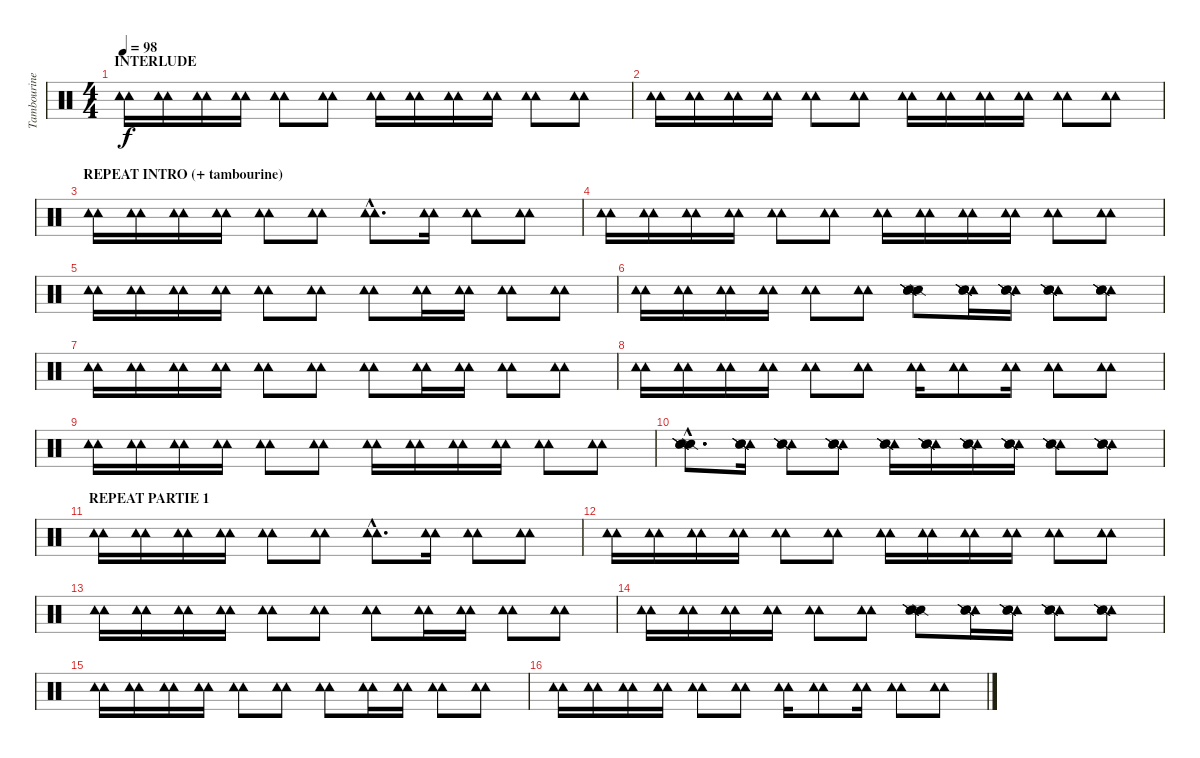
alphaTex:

\track ("Tambourine" "Tambourine") {instrument percussion}
\staff {score}
\articulation defaults
\ts (4 4)
\section ("" "INTERLUDE")
\tempo 98
\clef neutral
\ks c
("Tambourine (hit)" "Tambourine (hit)").16{dy f} ("Tambourine (hit)" "Tambourine (hit)").16 ("Tambourine (hit)" "Tambourine (hit)").16 ("Tambourine (hit)" "Tambourine (hit)").16 ("Tambourine (hit)" "Tambourine (hit)").8 ("Tambourine (hit)" "Tambourine (hit)").8 ("Tambourine (hit)" "Tambourine (hit)").16 ("Tambourine (hit)" "Tambourine (hit)").16 ("Tambourine (hit)" "Tambourine (hit)").16 ("Tambourine (hit)" "Tambourine (hit)").16 ("Tambourine (hit)" "Tambourine (hit)").8 ("Tambourine (hit)" "Tambourine (hit)").8 |
("Tambourine (hit)" "Tambourine (hit)").16 ("Tambourine (hit)" "Tambourine (hit)").16 ("Tambourine (hit)" "Tambourine (hit)").16 ("Tambourine (hit)" "Tambourine (hit)").16 ("Tambourine (hit)" "Tambourine (hit)").8 ("Tambourine (hit)" "Tambourine (hit)").8 ("Tambourine (hit)" "Tambourine (hit)").16 ("Tambourine (hit)" "Tambourine (hit)").16 ("Tambourine (hit)" "Tambourine (hit)").16 ("Tambourine (hit)" "Tambourine (hit)").16 ("Tambourine (hit)" "Tambourine (hit)").8 ("Tambourine (hit)" "Tambourine (hit)").8 |
\section ("" "REPEAT INTRO (+ tambourine)")
("Tambourine (hit)" "Tambourine (hit)").16 ("Tambourine (hit)" "Tambourine (hit)").16 ("Tambourine (hit)" "Tambourine (hit)").16 ("Tambourine (hit)" "Tambourine (hit)").16 ("Tambourine (hit)" "Tambourine (hit)").8 ("Tambourine (hit)" "Tambourine (hit)").8 ("Tambourine (hit)"{hac} "Tambourine (hit)"{hac}).8{d} ("Tambourine (hit)" "Tambourine (hit)").16 ("Tambourine (hit)" "Tambourine (hit)").8 ("Tambourine (hit)" "Tambourine (hit)").8 |
("Tambourine (hit)" "Tambourine (hit)").16 ("Tambourine (hit)" "Tambourine (hit)").16 ("Tambourine (hit)" "Tambourine (hit)").16 ("Tambourine (hit)" "Tambourine (hit)").16 ("Tambourine (hit)" "Tambourine (hit)").8 ("Tambourine (hit)" "Tambourine (hit)").8 ("Tambourine (hit)" "Tambourine (hit)").16 ("Tambourine (hit)" "Tambourine (hit)").16 ("Tambourine (hit)" "Tambourine (hit)").16 ("Tambourine (hit)" "Tambourine (hit)").16 ("Tambourine (hit)" "Tambourine (hit)").8 ("Tambourine (hit)" "Tambourine (hit)").8 |
("Tambourine (hit)" "Tambourine (hit)").16 ("Tambourine (hit)" "Tambourine (hit)").16 ("Tambourine (hit)" "Tambourine (hit)").16 ("Tambourine (hit)" "Tambourine (hit)").16 ("Tambourine (hit)" "Tambourine (hit)").8 ("Tambourine (hit)" "Tambourine (hit)").8 ("Tambourine (hit)" "Tambourine (hit)").8 ("Tambourine (hit)" "Tambourine (hit)").16 ("Tambourine (hit)" "Tambourine (hit)").16 ("Tambourine (hit)" "Tambourine (hit)").8 ("Tambourine (hit)" "Tambourine (hit)").8 |
("Tambourine (hit)" "Tambourine (hit)").16 ("Tambourine (hit)" "Tambourine (hit)").16 ("Tambourine (hit)" "Tambourine (hit)").16 ("Tambourine (hit)" "Tambourine (hit)").16 ("Tambourine (hit)" "Tambourine (hit)").8 ("Tambourine (hit)" "Tambourine (hit)").8 ("Snare (side stick) 2" "Snare (side stick) 2" "Snare (side stick) 2" "Snare (side stick) 2").8 ("Tambourine (hit)" "Snare (side stick) 2" "Snare (side stick) 2" "Snare (side stick) 2").16 ("Tambourine (hit)" "Snare (side stick) 2" "Snare (side stick) 2" "Snare (side stick) 2").16 ("Tambourine (hit)" "Snare (side stick) 2" "Snare (side stick) 2" "Snare (side stick) 2").8 ("Tambourine (hit)" "Snare (side stick) 2" "Snare (side stick) 2" "Snare (side stick) 2").8 |
("Tambourine (hit)" "Tambourine (hit)").16 ("Tambourine (hit)" "Tambourine (hit)").16 ("Tambourine (hit)" "Tambourine (hit)").16 ("Tambourine (hit)" "Tambourine (hit)").16 ("Tambourine (hit)" "Tambourine (hit)").8 ("Tambourine (hit)" "Tambourine (hit)").8 ("Tambourine (hit)" "Tambourine (hit)").8 ("Tambourine (hit)" "Tambourine (hit)").16 ("Tambourine (hit)" "Tambourine (hit)").16 ("Tambourine (hit)" "Tambourine (hit)").8 ("Tambourine (hit)" "Tambourine (hit)").8 |
("Tambourine (hit)" "Tambourine (hit)").16 ("Tambourine (hit)" "Tambourine (hit)").16 ("Tambourine (hit)" "Tambourine (hit)").16 ("Tambourine (hit)" "Tambourine (hit)").16 ("Tambourine (hit)" "Tambourine (hit)").8 ("Tambourine (hit)" "Tambourine (hit)").8 ("Tambourine (hit)" "Tambourine (hit)").16 ("Tambourine (hit)" "Tambourine (hit)").8 ("Tambourine (hit)" "Tambourine (hit)").16 ("Tambourine (hit)" "Tambourine (hit)").8 ("Tambourine (hit)" "Tambourine (hit)").8 |
("Tambourine (hit)" "Tambourine (hit)").16 ("Tambourine (hit)" "Tambourine (hit)").16 ("Tambourine (hit)" "Tambourine (hit)").16 ("Tambourine (hit)" "Tambourine (hit)").16 ("Tambourine (hit)" "Tambourine (hit)").8 ("Tambourine (hit)" "Tambourine (hit)").8 ("Tambourine (hit)" "Tambourine (hit)").16 ("Tambourine (hit)" "Tambourine (hit)").16 ("Tambourine (hit)" "Tambourine (hit)").16 ("Tambourine (hit)" "Tambourine (hit)").16 ("Tambourine (hit)" "Tambourine (hit)").8 ("Tambourine (hit)" "Tambourine (hit)").8 |
("Snare (side stick) 2"{hac} "Snare (side stick) 2"{hac} "Snare (side stick) 2"{hac} "Snare (side stick) 2"{hac}).8{d} ("Tambourine (hit)" "Snare (side stick) 2" "Snare (side stick) 2" "Snare (side stick) 2").16 ("Tambourine (hit)" "Snare (side stick) 2" "Snare (side stick) 2" "Snare (side stick) 2").8 ("Tambourine (hit)" "Snare (side stick) 2" "Snare (side stick) 2" "Snare (side stick) 2").8 ("Tambourine (hit)" "Snare (side stick) 2" "Snare (side stick) 2" "Snare (side stick) 2").16 ("Tambourine (hit)" "Snare (side stick) 2" "Snare (side stick) 2" "Snare (side stick) 2").16 ("Tambourine (hit)" "Snare (side stick) 2" "Snare (side stick) 2" "Snare (side stick) 2").16 ("Tambourine (hit)" "Snare (side stick) 2" "Snare (side stick) 2" "Snare (side stick) 2").16 ("Tambourine (hit)" "Snare (side stick) 2" "Snare (side stick) 2" "Snare (side stick) 2").8 ("Tambourine (hit)" "Snare (side stick) 2" "Snare (side stick) 2" "Snare (side stick) 2").8 |
\section ("" "REPEAT PARTIE 1")
("Tambourine (hit)" "Tambourine (hit)").16 ("Tambourine (hit)" "Tambourine (hit)").16 ("Tambourine (hit)" "Tambourine (hit)").16 ("Tambourine (hit)" "Tambourine (hit)").16 ("Tambourine (hit)" "Tambourine (hit)").8 ("Tambourine (hit)" "Tambourine (hit)").8 ("Tambourine (hit)"{hac} "Tambourine (hit)"{hac}).8{d} ("Tambourine (hit)" "Tambourine (hit)").16 ("Tambourine (hit)" "Tambourine (hit)").8 ("Tambourine (hit)" "Tambourine (hit)").8 |
("Tambourine (hit)" "Tambourine (hit)").16 ("Tambourine (hit)" "Tambourine (hit)").16 ("Tambourine (hit)" "Tambourine (hit)").16 ("Tambourine (hit)" "Tambourine (hit)").16 ("Tambourine (hit)" "Tambourine (hit)").8 ("Tambourine (hit)" "Tambourine (hit)").8 ("Tambourine (hit)" "Tambourine (hit)").16 ("Tambourine (hit)" "Tambourine (hit)").16 ("Tambourine (hit)" "Tambourine (hit)").16 ("Tambourine (hit)" "Tambourine (hit)").16 ("Tambourine (hit)" "Tambourine (hit)").8 ("Tambourine (hit)" "Tambourine (hit)").8 |
("Tambourine (hit)" "Tambourine (hit)").16 ("Tambourine (hit)" "Tambourine (hit)").16 ("Tambourine (hit)" "Tambourine (hit)").16 ("Tambourine (hit)" "Tambourine (hit)").16 ("Tambourine (hit)" "Tambourine (hit)").8 ("Tambourine (hit)" "Tambourine (hit)").8 ("Tambourine (hit)" "Tambourine (hit)").8 ("Tambourine (hit)" "Tambourine (hit)").16 ("Tambourine (hit)" "Tambourine (hit)").16 ("Tambourine (hit)" "Tambourine (hit)").8 ("Tambourine (hit)" "Tambourine (hit)").8 |
("Tambourine (hit)" "Tambourine (hit)").16 ("Tambourine (hit)" "Tambourine (hit)").16 ("Tambourine (hit)" "Tambourine (hit)").16 ("Tambourine (hit)" "Tambourine (hit)").16 ("Tambourine (hit)" "Tambourine (hit)").8 ("Tambourine (hit)" "Tambourine (hit)").8 ("Snare (side stick) 2" "Snare (side stick) 2" "Snare (side stick) 2" "Snare (side stick) 2").8 ("Tambourine (hit)" "Snare (side stick) 2" "Snare (side stick) 2" "Snare (side stick) 2").16 ("Tambourine (hit)" "Snare (side stick) 2" "Snare (side stick) 2" "Snare (side stick) 2").16 ("Tambourine (hit)" "Snare (side stick) 2" "Snare (side stick) 2" "Snare (side stick) 2").8 ("Tambourine (hit)" "Snare (side stick) 2" "Snare (side stick) 2" "Snare (side stick) 2").8 |
("Tambourine (hit)" "Tambourine (hit)").16 ("Tambourine (hit)" "Tambourine (hit)").16 ("Tambourine (hit)" "Tambourine (hit)").16 ("Tambourine (hit)" "Tambourine (hit)").16 ("Tambourine (hit)" "Tambourine (hit)").8 ("Tambourine (hit)" "Tambourine (hit)").8 ("Tambourine (hit)" "Tambourine (hit)").8 ("Tambourine (hit)" "Tambourine (hit)").16 ("Tambourine (hit)" "Tambourine (hit)").16 ("Tambourine (hit)" "Tambourine (hit)").8 ("Tambourine (hit)" "Tambourine (hit)").8 |
("Tambourine (hit)" "Tambourine (hit)").16 ("Tambourine (hit)" "Tambourine (hit)").16 ("Tambourine (hit)" "Tambourine (hit)").16 ("Tambourine (hit)" "Tambourine (hit)").16 ("Tambourine (hit)" "Tambourine (hit)").8 ("Tambourine (hit)" "Tambourine (hit)").8 ("Tambourine (hit)" "Tambourine (hit)").16 ("Tambourine (hit)" "Tambourine (hit)").8 ("Tambourine (hit)" "Tambourine (hit)").16 ("Tambourine (hit)" "Tambourine (hit)").8 ("Tambourine (hit)" "Tambourine (hit)").8
